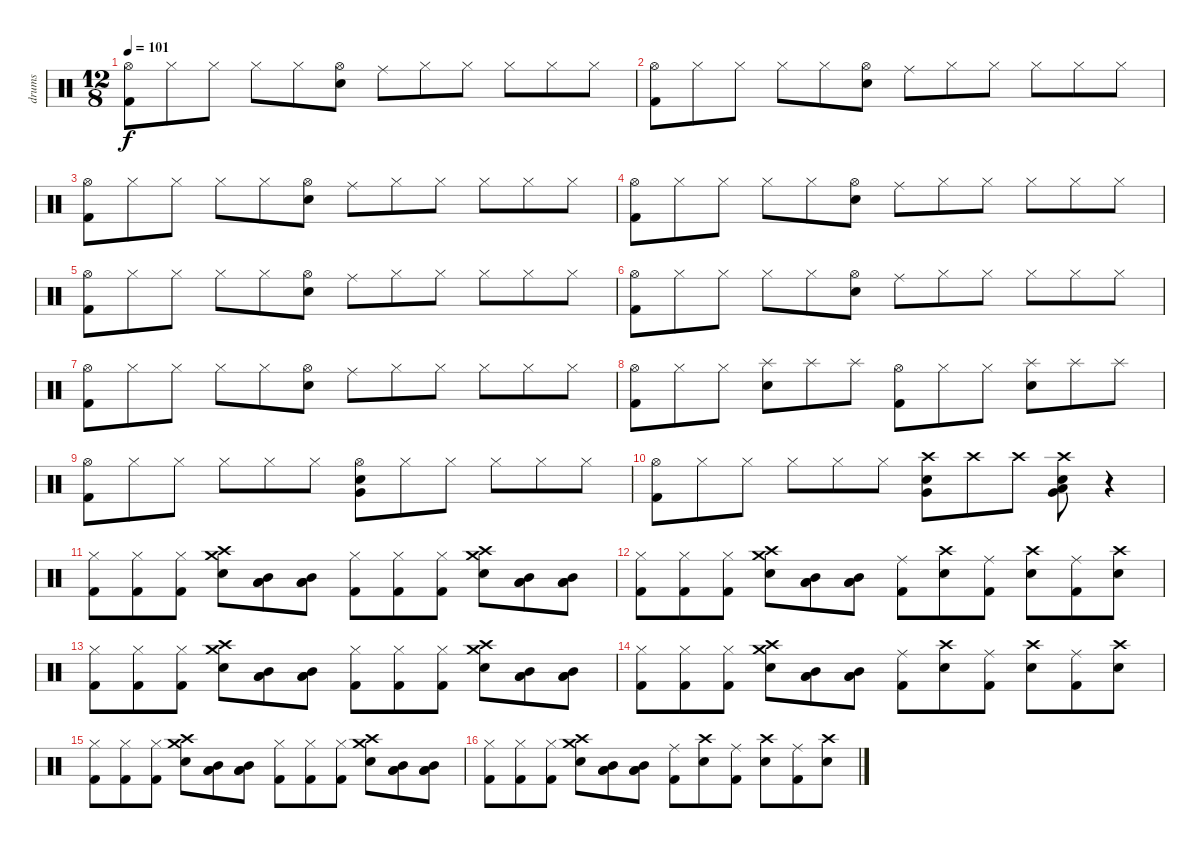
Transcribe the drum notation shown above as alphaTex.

\track ("drums" "drums") {instrument percussion}
\staff {score}
\articulation defaults
\ts (12 8)
\tempo 101
\clef neutral
\ks c
("Hi-Hat (open)" "Kick (hit) 2").8{dy f} "Hi-Hat (closed)".8 "Hi-Hat (closed)".8 "Hi-Hat (closed)".8 "Hi-Hat (closed)".8 ("Snare (hit) 2" "Hi-Hat (open)").8 "Ride (middle)".8 "Hi-Hat (closed)".8 "Hi-Hat (closed)".8 "Hi-Hat (closed)".8 "Hi-Hat (closed)".8 "Hi-Hat (closed)".8 |
("Hi-Hat (open)" "Kick (hit) 2").8 "Hi-Hat (closed)".8 "Hi-Hat (closed)".8 "Hi-Hat (closed)".8 "Hi-Hat (closed)".8 ("Snare (hit) 2" "Hi-Hat (open)").8 "Ride (middle)".8 "Hi-Hat (closed)".8 "Hi-Hat (closed)".8 "Hi-Hat (closed)".8 "Hi-Hat (closed)".8 "Hi-Hat (closed)".8 |
("Hi-Hat (open)" "Kick (hit) 2").8 "Hi-Hat (closed)".8 "Hi-Hat (closed)".8 "Hi-Hat (closed)".8 "Hi-Hat (closed)".8 ("Snare (hit) 2" "Hi-Hat (open)").8 "Ride (middle)".8 "Hi-Hat (closed)".8 "Hi-Hat (closed)".8 "Hi-Hat (closed)".8 "Hi-Hat (closed)".8 "Hi-Hat (closed)".8 |
("Hi-Hat (open)" "Kick (hit) 2").8 "Hi-Hat (closed)".8 "Hi-Hat (closed)".8 "Hi-Hat (closed)".8 "Hi-Hat (closed)".8 ("Snare (hit) 2" "Hi-Hat (open)").8 "Ride (middle)".8 "Hi-Hat (closed)".8 "Hi-Hat (closed)".8 "Hi-Hat (closed)".8 "Hi-Hat (closed)".8 "Hi-Hat (closed)".8 |
("Hi-Hat (open)" "Kick (hit) 2").8 "Hi-Hat (closed)".8 "Hi-Hat (closed)".8 "Hi-Hat (closed)".8 "Hi-Hat (closed)".8 ("Snare (hit) 2" "Hi-Hat (open)").8 "Ride (middle)".8 "Hi-Hat (closed)".8 "Hi-Hat (closed)".8 "Hi-Hat (closed)".8 "Hi-Hat (closed)".8 "Hi-Hat (closed)".8 |
("Hi-Hat (open)" "Kick (hit) 2").8 "Hi-Hat (closed)".8 "Hi-Hat (closed)".8 "Hi-Hat (closed)".8 "Hi-Hat (closed)".8 ("Snare (hit) 2" "Hi-Hat (open)").8 "Ride (middle)".8 "Hi-Hat (closed)".8 "Hi-Hat (closed)".8 "Hi-Hat (closed)".8 "Hi-Hat (closed)".8 "Hi-Hat (closed)".8 |
("Hi-Hat (open)" "Kick (hit) 2").8 "Hi-Hat (closed)".8 "Hi-Hat (closed)".8 "Hi-Hat (closed)".8 "Hi-Hat (closed)".8 ("Snare (hit) 2" "Hi-Hat (open)").8 "Ride (middle)".8 "Hi-Hat (closed)".8 "Hi-Hat (closed)".8 "Hi-Hat (closed)".8 "Hi-Hat (closed)".8 "Hi-Hat (closed)".8 |
("Hi-Hat (open)" "Kick (hit) 2").8 "Hi-Hat (closed)".8 "Hi-Hat (closed)".8 ("Snare (hit) 2" "Splash (hit)").8 "Splash (hit)".8 "Splash (hit)".8 ("Kick (hit) 2" "Hi-Hat (open)").8 "Hi-Hat (closed)".8 "Hi-Hat (closed)".8 ("Snare (hit) 2" "Splash (hit)").8 "Splash (hit)".8 "Splash (hit)".8 |
("Hi-Hat (open)" "Kick (hit) 2").8 "Hi-Hat (closed)".8 "Hi-Hat (closed)".8 "Hi-Hat (closed)".8 "Hi-Hat (closed)".8 "Hi-Hat (closed)".8 ("Very Low Tom (hit)" "Hi-Hat (open)" "Snare (hit) 2").8 "Hi-Hat (closed)".8 "Hi-Hat (closed)".8 "Hi-Hat (closed)".8 "Hi-Hat (closed)".8 "Hi-Hat (closed)".8 |
("Hi-Hat (open)" "Kick (hit) 2").8 "Hi-Hat (closed)".8 "Hi-Hat (closed)".8 "Hi-Hat (closed)".8 "Hi-Hat (closed)".8 "Hi-Hat (closed)".8 ("Crash high (hit)" "Very Low Tom (hit)" "Snare (hit) 2").8 "Crash high (hit)".8 "Crash high (hit)".8 ("Very Low Tom (hit)" "Crash high (hit)" "Low Floor Tom (hit)" "Snare (hit) 2").8 r.4 |
("Hi-Hat (closed)" "Kick (hit) 2").8 ("Hi-Hat (closed)" "Kick (hit) 2").8 ("Hi-Hat (closed)" "Kick (hit) 2").8 ("Snare (hit) 2" "Crash high (hit)" "Crash medium (hit)").8 ("Low Tom (hit)" "Low Floor Tom (hit)" "Mid Tom (hit)").8 ("Mid Tom (hit)" "Low Floor Tom (hit)" "Low Tom (hit)").8 ("Hi-Hat (closed)" "Kick (hit) 2").8 ("Hi-Hat (closed)" "Kick (hit) 2").8 ("Hi-Hat (closed)" "Kick (hit) 2").8 ("Crash medium (hit)" "Crash high (hit)" "Snare (hit) 2").8 ("Mid Tom (hit)" "Low Tom (hit)" "Low Floor Tom (hit)").8 ("Mid Tom (hit)" "Low Tom (hit)" "Low Floor Tom (hit)").8 |
("Hi-Hat (closed)" "Kick (hit) 2").8 ("Hi-Hat (closed)" "Kick (hit) 2").8 ("Hi-Hat (closed)" "Kick (hit) 2").8 ("Snare (hit) 2" "Crash high (hit)" "Crash medium (hit)").8 ("Low Floor Tom (hit)" "Mid Tom (hit)" "Low Tom (hit)").8 ("Mid Tom (hit)" "Low Tom (hit)" "Low Floor Tom (hit)").8 ("Ride (middle)" "Kick (hit) 2").8 ("Crash high (hit)" "Snare (hit) 2").8 ("Ride (middle)" "Kick (hit) 2").8 ("Crash high (hit)" "Snare (hit) 2").8 ("Ride (middle)" "Kick (hit) 2").8 ("Crash high (hit)" "Snare (hit) 2").8 |
("Hi-Hat (closed)" "Kick (hit) 2").8 ("Hi-Hat (closed)" "Kick (hit) 2").8 ("Hi-Hat (closed)" "Kick (hit) 2").8 ("Snare (hit) 2" "Crash high (hit)" "Crash medium (hit)").8 ("Low Tom (hit)" "Low Floor Tom (hit)" "Mid Tom (hit)").8 ("Mid Tom (hit)" "Low Floor Tom (hit)" "Low Tom (hit)").8 ("Hi-Hat (closed)" "Kick (hit) 2").8 ("Hi-Hat (closed)" "Kick (hit) 2").8 ("Hi-Hat (closed)" "Kick (hit) 2").8 ("Crash medium (hit)" "Crash high (hit)" "Snare (hit) 2").8 ("Mid Tom (hit)" "Low Tom (hit)" "Low Floor Tom (hit)").8 ("Mid Tom (hit)" "Low Tom (hit)" "Low Floor Tom (hit)").8 |
("Hi-Hat (closed)" "Kick (hit) 2").8 ("Hi-Hat (closed)" "Kick (hit) 2").8 ("Hi-Hat (closed)" "Kick (hit) 2").8 ("Snare (hit) 2" "Crash high (hit)" "Crash medium (hit)").8 ("Low Floor Tom (hit)" "Mid Tom (hit)" "Low Tom (hit)").8 ("Mid Tom (hit)" "Low Tom (hit)" "Low Floor Tom (hit)").8 ("Ride (middle)" "Kick (hit) 2").8 ("Crash high (hit)" "Snare (hit) 2").8 ("Ride (middle)" "Kick (hit) 2").8 ("Crash high (hit)" "Snare (hit) 2").8 ("Ride (middle)" "Kick (hit) 2").8 ("Crash high (hit)" "Snare (hit) 2").8 |
("Hi-Hat (closed)" "Kick (hit) 2").8 ("Hi-Hat (closed)" "Kick (hit) 2").8 ("Hi-Hat (closed)" "Kick (hit) 2").8 ("Snare (hit) 2" "Crash high (hit)" "Crash medium (hit)").8 ("Low Tom (hit)" "Low Floor Tom (hit)" "Mid Tom (hit)").8 ("Mid Tom (hit)" "Low Floor Tom (hit)" "Low Tom (hit)").8 ("Hi-Hat (closed)" "Kick (hit) 2").8 ("Hi-Hat (closed)" "Kick (hit) 2").8 ("Hi-Hat (closed)" "Kick (hit) 2").8 ("Crash medium (hit)" "Crash high (hit)" "Snare (hit) 2").8 ("Mid Tom (hit)" "Low Tom (hit)" "Low Floor Tom (hit)").8 ("Mid Tom (hit)" "Low Tom (hit)" "Low Floor Tom (hit)").8 |
("Hi-Hat (closed)" "Kick (hit) 2").8 ("Hi-Hat (closed)" "Kick (hit) 2").8 ("Hi-Hat (closed)" "Kick (hit) 2").8 ("Snare (hit) 2" "Crash high (hit)" "Crash medium (hit)").8 ("Low Floor Tom (hit)" "Mid Tom (hit)" "Low Tom (hit)").8 ("Mid Tom (hit)" "Low Tom (hit)" "Low Floor Tom (hit)").8 ("Ride (middle)" "Kick (hit) 2").8 ("Crash high (hit)" "Snare (hit) 2").8 ("Ride (middle)" "Kick (hit) 2").8 ("Crash high (hit)" "Snare (hit) 2").8 ("Ride (middle)" "Kick (hit) 2").8 ("Crash high (hit)" "Snare (hit) 2").8
